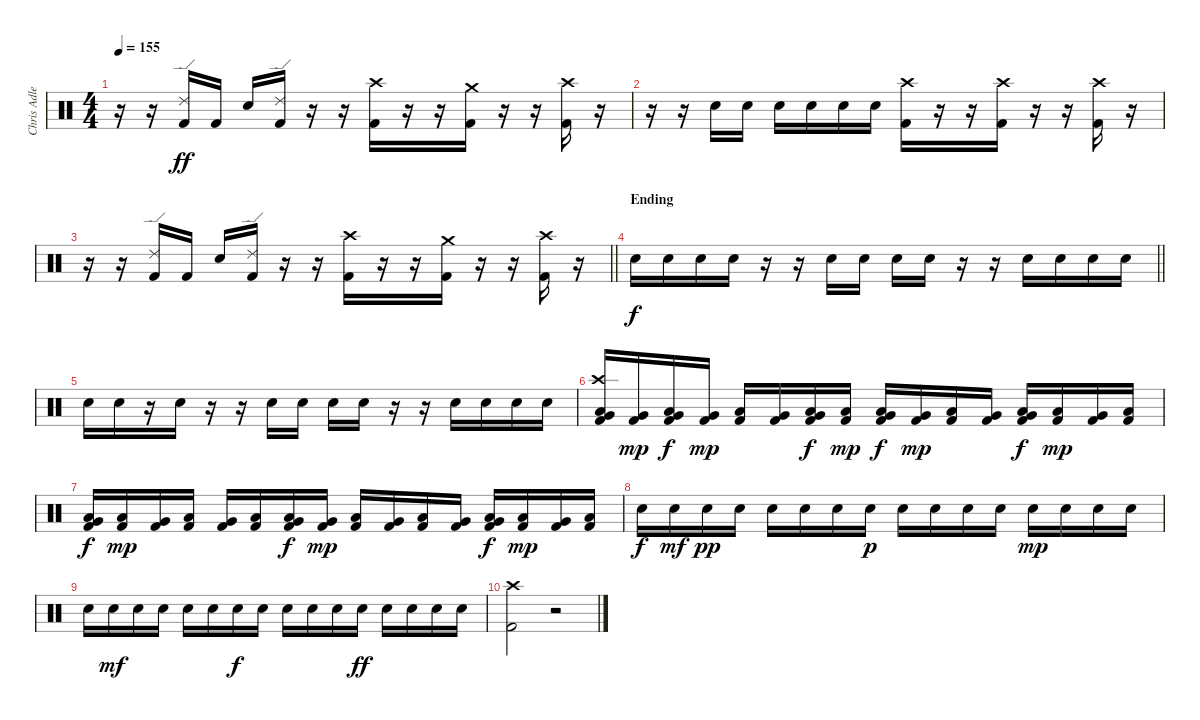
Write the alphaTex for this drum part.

\track ("Chris Adler" "Chris Adle") {instrument percussion}
\staff {score}
\articulation defaults
\ts (4 4)
\tempo 155
\clef neutral
\ks c
r.16{dy ff} r.16 ("Ride (edge) 2" "Kick (hit) 2").16 "Kick (hit) 2".16 "Snare (hit) 2".16 ("Ride (edge) 2" "Kick (hit) 2").16 r.16 r.16 ("Crash high (hit)" "Kick (hit) 2").16 r.16 r.16 ("Crash medium (hit)" "Kick (hit) 2").16 r.16 r.16 ("Crash high (hit)" "Kick (hit) 2").16 r.16 |
r.16 r.16 "Snare (hit) 2".16 "Snare (hit) 2".16 "Snare (hit) 2".16 "Snare (hit) 2".16 "Snare (hit) 2".16 "Snare (hit) 2".16 ("Crash high (hit)" "Kick (hit) 2").16 r.16 r.16 ("Crash high (hit)" "Kick (hit) 2").16 r.16 r.16 ("Crash high (hit)" "Kick (hit) 2").16 r.16 |
\barLineRight lightlight
r.16 r.16 ("Ride (edge) 2" "Kick (hit) 2").16 "Kick (hit) 2".16 "Snare (hit) 2".16 ("Ride (edge) 2" "Kick (hit) 2").16 r.16 r.16 ("Crash high (hit)" "Kick (hit) 2").16 r.16 r.16 ("Crash medium (hit)" "Kick (hit) 2").16 r.16 r.16 ("Crash high (hit)" "Kick (hit) 2").16 r.16 |
\section ("" "Ending")
\barLineRight lightlight "Snare (hit) 2".16{dy f} "Snare (hit) 2".16 "Snare (hit) 2".16 "Snare (hit) 2".16
r.16 r.16 "Snare (hit) 2".16 "Snare (hit) 2".16 "Snare (hit) 2".16 "Snare (hit) 2".16 r.16 r.16 "Snare (hit) 2".16 "Snare (hit) 2".16 "Snare (hit) 2".16 "Snare (hit) 2".16 |
"Snare (hit) 2".16 "Snare (hit) 2".16 r.16 "Snare (hit) 2".16 r.16 r.16 "Snare (hit) 2".16 "Snare (hit) 2".16 "Snare (hit) 2".16 "Snare (hit) 2".16 r.16 r.16 "Snare (hit) 2".16 "Snare (hit) 2".16 "Snare (hit) 2".16 "Snare (hit) 2".16 |
("Crash high (hit)" "Very Low Tom (hit)" "Low Tom (hit)" "Kick (hit) 2").16 ("Very Low Tom (hit)" "Kick (hit) 2").16{dy mp} ("Very Low Tom (hit)" "Low Tom (hit)" "Kick (hit) 2").16{dy f} ("Very Low Tom (hit)" "Kick (hit) 2").16{dy mp} ("Low Tom (hit)" "Kick (hit) 2").16 ("Very Low Tom (hit)" "Kick (hit) 2").16 ("Very Low Tom (hit)" "Low Tom (hit)" "Kick (hit) 2").16{dy f} ("Low Tom (hit)" "Kick (hit) 2").16{dy mp} ("Very Low Tom (hit)" "Low Tom (hit)" "Kick (hit) 2").16{dy f} ("Very Low Tom (hit)" "Kick (hit) 2").16{dy mp} ("Low Tom (hit)" "Kick (hit) 2").16 ("Very Low Tom (hit)" "Kick (hit) 2").16 ("Very Low Tom (hit)" "Low Tom (hit)" "Kick (hit) 2").16{dy f} ("Low Tom (hit)" "Kick (hit) 2").16{dy mp} ("Very Low Tom (hit)" "Kick (hit) 2").16 ("Low Tom (hit)" "Kick (hit) 2").16 |
("Very Low Tom (hit)" "Low Tom (hit)" "Kick (hit) 2").16{dy f} ("Low Tom (hit)" "Kick (hit) 2").16{dy mp} ("Very Low Tom (hit)" "Kick (hit) 2").16 ("Low Tom (hit)" "Kick (hit) 2").16 ("Very Low Tom (hit)" "Kick (hit) 2").16 ("Low Tom (hit)" "Kick (hit) 2").16 ("Very Low Tom (hit)" "Low Tom (hit)" "Kick (hit) 2").16{dy f} ("Very Low Tom (hit)" "Kick (hit) 2").16{dy mp} ("Low Tom (hit)" "Kick (hit) 2").16 ("Very Low Tom (hit)" "Kick (hit) 2").16 ("Low Tom (hit)" "Kick (hit) 2").16 ("Very Low Tom (hit)" "Kick (hit) 2").16 ("Very Low Tom (hit)" "Low Tom (hit)" "Kick (hit) 2").16{dy f} ("Low Tom (hit)" "Kick (hit) 2").16{dy mp} ("Very Low Tom (hit)" "Kick (hit) 2").16 ("Low Tom (hit)" "Kick (hit) 2").16 |
"Snare (hit) 2".16{dy f} "Snare (hit) 2".16{dy mf} "Snare (hit) 2".16{dy pp} "Snare (hit) 2".16 "Snare (hit) 2".16 "Snare (hit) 2".16 "Snare (hit) 2".16 "Snare (hit) 2".16{dy p} "Snare (hit) 2".16 "Snare (hit) 2".16 "Snare (hit) 2".16 "Snare (hit) 2".16 "Snare (hit) 2".16{dy mp} "Snare (hit) 2".16 "Snare (hit) 2".16 "Snare (hit) 2".16 |
"Snare (hit) 2".16 "Snare (hit) 2".16{dy mf} "Snare (hit) 2".16 "Snare (hit) 2".16 "Snare (hit) 2".16 "Snare (hit) 2".16 "Snare (hit) 2".16{dy f} "Snare (hit) 2".16 "Snare (hit) 2".16 "Snare (hit) 2".16 "Snare (hit) 2".16 "Snare (hit) 2".16{dy ff} "Snare (hit) 2".16 "Snare (hit) 2".16 "Snare (hit) 2".16 "Snare (hit) 2".16 |
("Crash high (hit)" "Kick (hit) 2").2 r.2
